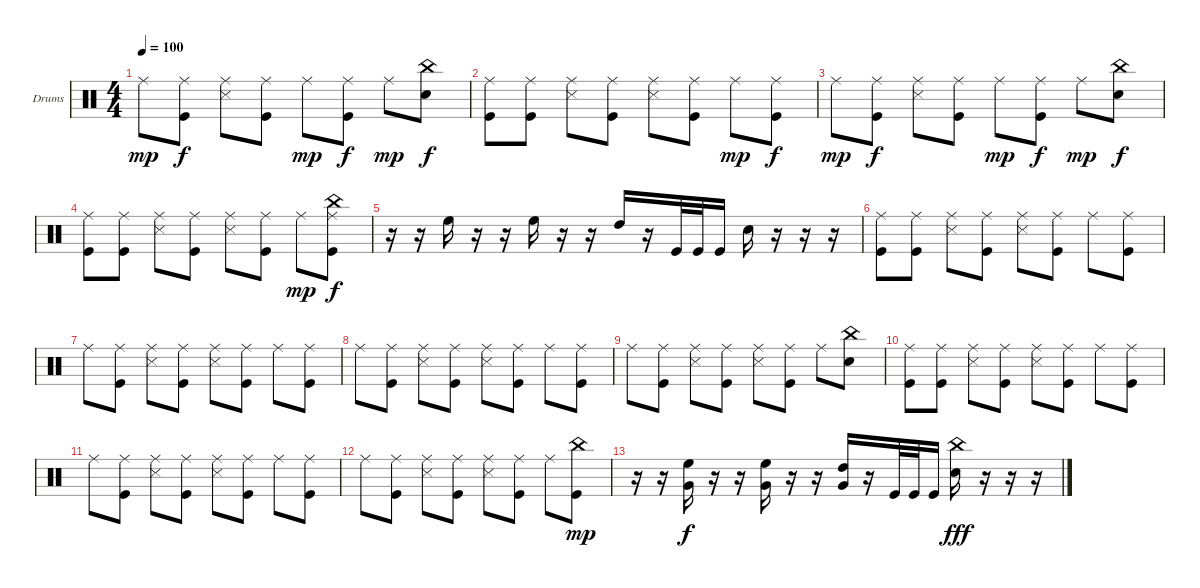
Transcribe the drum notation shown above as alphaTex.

\bracketExtendMode groupsimilarinstruments
\firstSystemTrackNameOrientation horizontal
\otherSystemsTrackNameOrientation horizontal
\track ("Drumkit" "Drums") {instrument percussion}
\staff {score}
\articulation defaults
\ts (4 4)
\tempo 100
\clef neutral
\ks c "Ride (middle)".8{dy mp}
("Kick (hit)" "Ride (middle)").8{dy f} ("Snare (side stick) 3" "Ride (middle)").8 ("Kick (hit)" "Ride (middle)").8 "Ride (middle)".8{dy mp} ("Kick (hit)" "Ride (middle)").8{dy f} "Ride (middle)".8{dy mp} ("Snare (hit) 2" "China (hit)").8{dy f} |
("Kick (hit)" "Ride (middle)").8 ("Kick (hit)" "Ride (middle)").8 ("Snare (side stick) 3" "Ride (middle)").8 ("Kick (hit)" "Ride (middle)").8 ("Snare (side stick) 3" "Ride (middle)").8 ("Kick (hit)" "Ride (middle)").8 "Ride (middle)".8{dy mp} ("Kick (hit)" "Ride (middle)").8{dy f} |
"Ride (middle)".8{dy mp} ("Kick (hit)" "Ride (middle)").8{dy f} ("Snare (side stick) 3" "Ride (middle)").8 ("Kick (hit)" "Ride (middle)").8 "Ride (middle)".8{dy mp} ("Kick (hit)" "Ride (middle)").8{dy f} "Ride (middle)".8{dy mp} ("Snare (hit) 2" "China (hit)").8{dy f} |
("Kick (hit)" "Ride (middle)").8 ("Kick (hit)" "Ride (middle)").8 ("Snare (side stick) 3" "Ride (middle)").8 ("Kick (hit)" "Ride (middle)").8 ("Snare (side stick) 3" "Ride (middle)").8 ("Kick (hit)" "Ride (middle)").8 "Ride (middle)".8{dy mp} ("Kick (hit)" "Ride (middle)" "China (hit)").8{dy f} |
r.16 r.16 "High Floor Tom (hit)".16 r.16 r.16 "High Floor Tom (hit)".16 r.16 r.16 "High Tom (hit)".16 r.16 "Kick (hit)".32 "Kick (hit)".32 "Kick (hit)".16 "Snare (hit) 2".16 r.16 r.16 r.16 |
("Ride (middle)" "Kick (hit)").8 ("Ride (middle)" "Kick (hit)").8 ("Ride (middle)" "Snare (side stick) 3").8 ("Ride (middle)" "Kick (hit)").8 ("Ride (middle)" "Snare (side stick) 3").8 ("Ride (middle)" "Kick (hit)").8 "Ride (middle)".8 ("Ride (middle)" "Kick (hit)").8 |
"Ride (middle)".8 ("Ride (middle)" "Kick (hit)").8 ("Ride (middle)" "Snare (side stick) 3").8 ("Ride (middle)" "Kick (hit)").8 ("Ride (middle)" "Snare (side stick) 3").8 ("Ride (middle)" "Kick (hit)").8 "Ride (middle)".8 ("Ride (middle)" "Kick (hit)").8 |
"Ride (middle)".8 ("Ride (middle)" "Kick (hit)").8 ("Ride (middle)" "Snare (side stick) 3").8 ("Ride (middle)" "Kick (hit)").8 ("Ride (middle)" "Snare (side stick) 3").8 ("Ride (middle)" "Kick (hit)").8 "Ride (middle)".8 ("Ride (middle)" "Kick (hit)").8 |
"Ride (middle)".8 ("Ride (middle)" "Kick (hit)").8 ("Ride (middle)" "Snare (side stick) 3").8 ("Ride (middle)" "Kick (hit)").8 ("Ride (middle)" "Snare (side stick) 3").8 ("Ride (middle)" "Kick (hit)").8 "Ride (middle)".8 ("China (hit)" "Snare (hit) 2").8 |
("Ride (middle)" "Kick (hit)").8 ("Ride (middle)" "Kick (hit)").8 ("Ride (middle)" "Snare (side stick) 3").8 ("Ride (middle)" "Kick (hit)").8 ("Ride (middle)" "Snare (side stick) 3").8 ("Ride (middle)" "Kick (hit)").8 "Ride (middle)".8 ("Ride (middle)" "Kick (hit)").8 |
"Ride (middle)".8 ("Ride (middle)" "Kick (hit)").8 ("Ride (middle)" "Snare (side stick) 3").8 ("Ride (middle)" "Kick (hit)").8 ("Ride (middle)" "Snare (side stick) 3").8 ("Ride (middle)" "Kick (hit)").8 "Ride (middle)".8 ("Ride (middle)" "Kick (hit)").8 |
"Ride (middle)".8 ("Ride (middle)" "Kick (hit)").8 ("Ride (middle)" "Snare (side stick) 3").8 ("Ride (middle)" "Kick (hit)").8 ("Ride (middle)" "Snare (side stick) 3").8 ("Ride (middle)" "Kick (hit)").8 "Ride (middle)".8 ("China (hit)" "Kick (hit)").8{dy mp} |
r.16 r.16 ("High Floor Tom (hit)" "Very Low Tom (hit)").16{dy f} r.16 r.16 ("High Floor Tom (hit)" "Very Low Tom (hit)").16 r.16 r.16 ("High Tom (hit)" "Very Low Tom (hit)").16 r.16 "Kick (hit)".32 "Kick (hit)".32 "Kick (hit)".16 ("China (hit)" "Snare (hit) 2").16{dy fff} r.16 r.16 r.16
